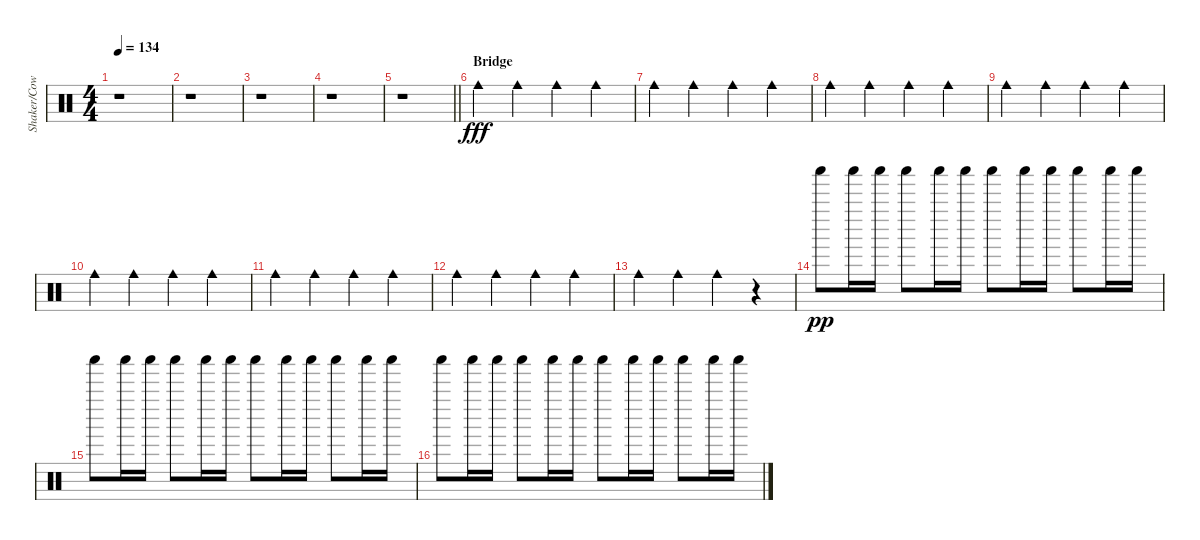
\track ("Shaker/Cowbell" "Shaker/Cow") {instrument percussion}
\staff {score}
\articulation defaults
\ts (4 4)
\tempo 134
\clef neutral
\ks c
r.1{dy pp} |
r.1 |
r.1 |
r.1 |
\barLineRight lightlight
r.1 |
\section ("" "Bridge")
"Cowbell medium (hit)".4{dy fff} "Cowbell medium (hit)".4 "Cowbell medium (hit)".4 "Cowbell medium (hit)".4 |
"Cowbell medium (hit)".4 "Cowbell medium (hit)".4 "Cowbell medium (hit)".4 "Cowbell medium (hit)".4 |
"Cowbell medium (hit)".4 "Cowbell medium (hit)".4 "Cowbell medium (hit)".4 "Cowbell medium (hit)".4 |
"Cowbell medium (hit)".4 "Cowbell medium (hit)".4 "Cowbell medium (hit)".4 "Cowbell medium (hit)".4 |
"Cowbell medium (hit)".4 "Cowbell medium (hit)".4 "Cowbell medium (hit)".4 "Cowbell medium (hit)".4 |
"Cowbell medium (hit)".4 "Cowbell medium (hit)".4 "Cowbell medium (hit)".4 "Cowbell medium (hit)".4 |
"Cowbell medium (hit)".4 "Cowbell medium (hit)".4 "Cowbell medium (hit)".4 "Cowbell medium (hit)".4 |
"Cowbell medium (hit)".4 "Cowbell medium (hit)".4 "Cowbell medium (hit)".4 r.4 |
"Shaker (hit)".8{dy pp} "Shaker (hit)".16 "Shaker (hit)".16 "Shaker (hit)".8 "Shaker (hit)".16 "Shaker (hit)".16 "Shaker (hit)".8 "Shaker (hit)".16 "Shaker (hit)".16 "Shaker (hit)".8 "Shaker (hit)".16 "Shaker (hit)".16 |
"Shaker (hit)".8 "Shaker (hit)".16 "Shaker (hit)".16 "Shaker (hit)".8 "Shaker (hit)".16 "Shaker (hit)".16 "Shaker (hit)".8 "Shaker (hit)".16 "Shaker (hit)".16 "Shaker (hit)".8 "Shaker (hit)".16 "Shaker (hit)".16 |
"Shaker (hit)".8 "Shaker (hit)".16 "Shaker (hit)".16 "Shaker (hit)".8 "Shaker (hit)".16 "Shaker (hit)".16 "Shaker (hit)".8 "Shaker (hit)".16 "Shaker (hit)".16 "Shaker (hit)".8 "Shaker (hit)".16 "Shaker (hit)".16
